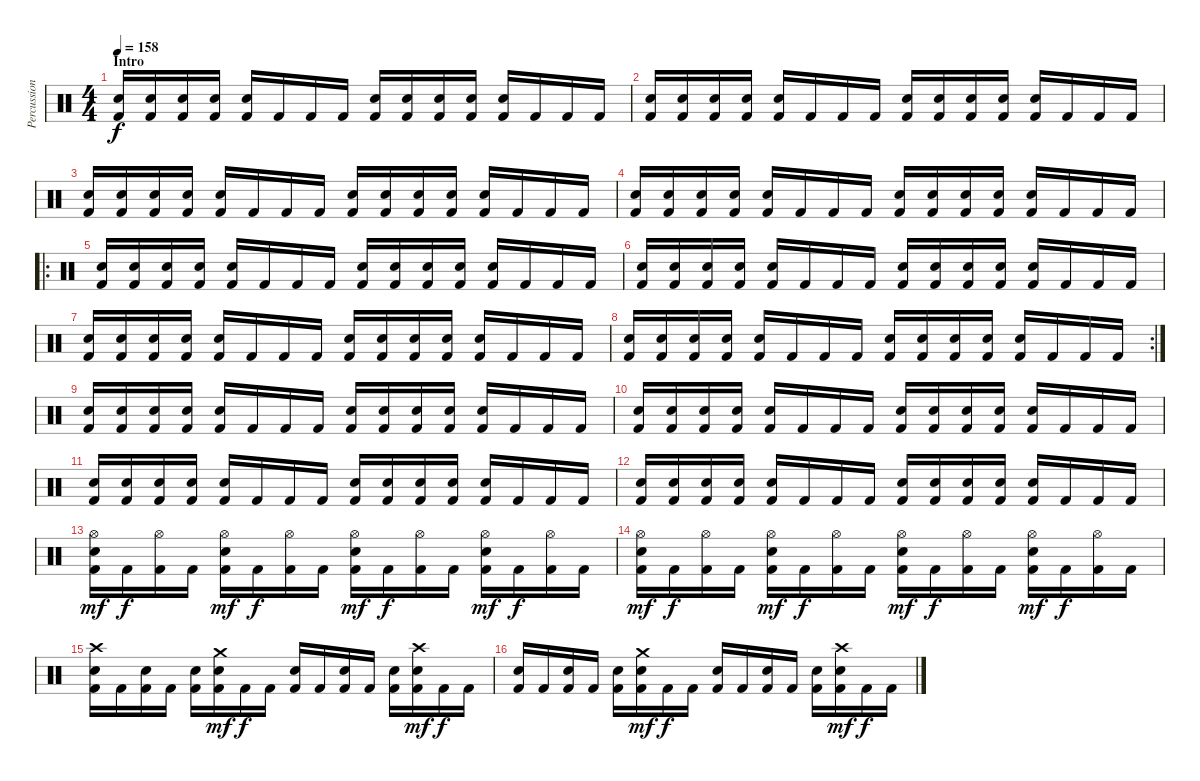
\track ("Percussion" "Percussion") {instrument percussion}
\staff {score}
\articulation defaults
\ts (4 4)
\section ("" "Intro")
\tempo 158
\clef neutral
\ks c
("Snare (hit) 2" "Kick (hit) 2").16{dy f} ("Snare (hit) 2" "Kick (hit) 2").16 ("Snare (hit) 2" "Kick (hit) 2").16 ("Snare (hit) 2" "Kick (hit) 2").16 ("Snare (hit) 2" "Kick (hit) 2").16 "Kick (hit) 2".16 "Kick (hit) 2".16 "Kick (hit) 2".16 ("Snare (hit) 2" "Kick (hit) 2").16 ("Snare (hit) 2" "Kick (hit) 2").16 ("Snare (hit) 2" "Kick (hit) 2").16 ("Snare (hit) 2" "Kick (hit) 2").16 ("Snare (hit) 2" "Kick (hit) 2").16 "Kick (hit) 2".16 "Kick (hit) 2".16 "Kick (hit) 2".16 |
("Snare (hit) 2" "Kick (hit) 2").16 ("Snare (hit) 2" "Kick (hit) 2").16 ("Snare (hit) 2" "Kick (hit) 2").16 ("Snare (hit) 2" "Kick (hit) 2").16 ("Snare (hit) 2" "Kick (hit) 2").16 "Kick (hit) 2".16 "Kick (hit) 2".16 "Kick (hit) 2".16 ("Snare (hit) 2" "Kick (hit) 2").16 ("Snare (hit) 2" "Kick (hit) 2").16 ("Snare (hit) 2" "Kick (hit) 2").16 ("Snare (hit) 2" "Kick (hit) 2").16 ("Snare (hit) 2" "Kick (hit) 2").16 "Kick (hit) 2".16 "Kick (hit) 2".16 "Kick (hit) 2".16 |
("Snare (hit) 2" "Kick (hit) 2").16 ("Snare (hit) 2" "Kick (hit) 2").16 ("Snare (hit) 2" "Kick (hit) 2").16 ("Snare (hit) 2" "Kick (hit) 2").16 ("Snare (hit) 2" "Kick (hit) 2").16 "Kick (hit) 2".16 "Kick (hit) 2".16 "Kick (hit) 2".16 ("Snare (hit) 2" "Kick (hit) 2").16 ("Snare (hit) 2" "Kick (hit) 2").16 ("Snare (hit) 2" "Kick (hit) 2").16 ("Snare (hit) 2" "Kick (hit) 2").16 ("Snare (hit) 2" "Kick (hit) 2").16 "Kick (hit) 2".16 "Kick (hit) 2".16 "Kick (hit) 2".16 |
("Snare (hit) 2" "Kick (hit) 2").16 ("Snare (hit) 2" "Kick (hit) 2").16 ("Snare (hit) 2" "Kick (hit) 2").16 ("Snare (hit) 2" "Kick (hit) 2").16 ("Snare (hit) 2" "Kick (hit) 2").16 "Kick (hit) 2".16 "Kick (hit) 2".16 "Kick (hit) 2".16 ("Snare (hit) 2" "Kick (hit) 2").16 ("Snare (hit) 2" "Kick (hit) 2").16 ("Snare (hit) 2" "Kick (hit) 2").16 ("Snare (hit) 2" "Kick (hit) 2").16 ("Snare (hit) 2" "Kick (hit) 2").16 "Kick (hit) 2".16 "Kick (hit) 2".16 "Kick (hit) 2".16 |
\ro
("Snare (hit) 2" "Kick (hit) 2").16 ("Snare (hit) 2" "Kick (hit) 2").16 ("Snare (hit) 2" "Kick (hit) 2").16 ("Snare (hit) 2" "Kick (hit) 2").16 ("Snare (hit) 2" "Kick (hit) 2").16 "Kick (hit) 2".16 "Kick (hit) 2".16 "Kick (hit) 2".16 ("Snare (hit) 2" "Kick (hit) 2").16 ("Snare (hit) 2" "Kick (hit) 2").16 ("Snare (hit) 2" "Kick (hit) 2").16 ("Snare (hit) 2" "Kick (hit) 2").16 ("Snare (hit) 2" "Kick (hit) 2").16 "Kick (hit) 2".16 "Kick (hit) 2".16 "Kick (hit) 2".16 |
("Snare (hit) 2" "Kick (hit) 2").16 ("Snare (hit) 2" "Kick (hit) 2").16 ("Snare (hit) 2" "Kick (hit) 2").16 ("Snare (hit) 2" "Kick (hit) 2").16 ("Snare (hit) 2" "Kick (hit) 2").16 "Kick (hit) 2".16 "Kick (hit) 2".16 "Kick (hit) 2".16 ("Snare (hit) 2" "Kick (hit) 2").16 ("Snare (hit) 2" "Kick (hit) 2").16 ("Snare (hit) 2" "Kick (hit) 2").16 ("Snare (hit) 2" "Kick (hit) 2").16 ("Snare (hit) 2" "Kick (hit) 2").16 "Kick (hit) 2".16 "Kick (hit) 2".16 "Kick (hit) 2".16 |
("Snare (hit) 2" "Kick (hit) 2").16 ("Snare (hit) 2" "Kick (hit) 2").16 ("Snare (hit) 2" "Kick (hit) 2").16 ("Snare (hit) 2" "Kick (hit) 2").16 ("Snare (hit) 2" "Kick (hit) 2").16 "Kick (hit) 2".16 "Kick (hit) 2".16 "Kick (hit) 2".16 ("Snare (hit) 2" "Kick (hit) 2").16 ("Snare (hit) 2" "Kick (hit) 2").16 ("Snare (hit) 2" "Kick (hit) 2").16 ("Snare (hit) 2" "Kick (hit) 2").16 ("Snare (hit) 2" "Kick (hit) 2").16 "Kick (hit) 2".16 "Kick (hit) 2".16 "Kick (hit) 2".16 |
\rc 2
("Snare (hit) 2" "Kick (hit) 2").16 ("Snare (hit) 2" "Kick (hit) 2").16 ("Snare (hit) 2" "Kick (hit) 2").16 ("Snare (hit) 2" "Kick (hit) 2").16 ("Snare (hit) 2" "Kick (hit) 2").16 "Kick (hit) 2".16 "Kick (hit) 2".16 "Kick (hit) 2".16 ("Snare (hit) 2" "Kick (hit) 2").16 ("Snare (hit) 2" "Kick (hit) 2").16 ("Snare (hit) 2" "Kick (hit) 2").16 ("Snare (hit) 2" "Kick (hit) 2").16 ("Snare (hit) 2" "Kick (hit) 2").16 "Kick (hit) 2".16 "Kick (hit) 2".16 "Kick (hit) 2".16 |
("Snare (hit) 2" "Kick (hit) 2").16 ("Snare (hit) 2" "Kick (hit) 2").16 ("Snare (hit) 2" "Kick (hit) 2").16 ("Snare (hit) 2" "Kick (hit) 2").16 ("Snare (hit) 2" "Kick (hit) 2").16 "Kick (hit) 2".16 "Kick (hit) 2".16 "Kick (hit) 2".16 ("Snare (hit) 2" "Kick (hit) 2").16 ("Snare (hit) 2" "Kick (hit) 2").16 ("Snare (hit) 2" "Kick (hit) 2").16 ("Snare (hit) 2" "Kick (hit) 2").16 ("Snare (hit) 2" "Kick (hit) 2").16 "Kick (hit) 2".16 "Kick (hit) 2".16 "Kick (hit) 2".16 |
("Snare (hit) 2" "Kick (hit) 2").16 ("Snare (hit) 2" "Kick (hit) 2").16 ("Snare (hit) 2" "Kick (hit) 2").16 ("Snare (hit) 2" "Kick (hit) 2").16 ("Snare (hit) 2" "Kick (hit) 2").16 "Kick (hit) 2".16 "Kick (hit) 2".16 "Kick (hit) 2".16 ("Snare (hit) 2" "Kick (hit) 2").16 ("Snare (hit) 2" "Kick (hit) 2").16 ("Snare (hit) 2" "Kick (hit) 2").16 ("Snare (hit) 2" "Kick (hit) 2").16 ("Snare (hit) 2" "Kick (hit) 2").16 "Kick (hit) 2".16 "Kick (hit) 2".16 "Kick (hit) 2".16 |
("Snare (hit) 2" "Kick (hit) 2").16 ("Snare (hit) 2" "Kick (hit) 2").16 ("Snare (hit) 2" "Kick (hit) 2").16 ("Snare (hit) 2" "Kick (hit) 2").16 ("Snare (hit) 2" "Kick (hit) 2").16 "Kick (hit) 2".16 "Kick (hit) 2".16 "Kick (hit) 2".16 ("Snare (hit) 2" "Kick (hit) 2").16 ("Snare (hit) 2" "Kick (hit) 2").16 ("Snare (hit) 2" "Kick (hit) 2").16 ("Snare (hit) 2" "Kick (hit) 2").16 ("Snare (hit) 2" "Kick (hit) 2").16 "Kick (hit) 2".16 "Kick (hit) 2".16 "Kick (hit) 2".16 |
("Snare (hit) 2" "Kick (hit) 2").16 ("Snare (hit) 2" "Kick (hit) 2").16 ("Snare (hit) 2" "Kick (hit) 2").16 ("Snare (hit) 2" "Kick (hit) 2").16 ("Snare (hit) 2" "Kick (hit) 2").16 "Kick (hit) 2".16 "Kick (hit) 2".16 "Kick (hit) 2".16 ("Snare (hit) 2" "Kick (hit) 2").16 ("Snare (hit) 2" "Kick (hit) 2").16 ("Snare (hit) 2" "Kick (hit) 2").16 ("Snare (hit) 2" "Kick (hit) 2").16 ("Snare (hit) 2" "Kick (hit) 2").16 "Kick (hit) 2".16 "Kick (hit) 2".16 "Kick (hit) 2".16 |
("Hi-Hat (open)" "Snare (hit) 2" "Kick (hit) 2").16{dy mf} "Kick (hit) 2".16{dy f} ("Hi-Hat (open)" "Kick (hit) 2").16 "Kick (hit) 2".16 ("Hi-Hat (open)" "Snare (hit) 2" "Kick (hit) 2").16{dy mf} "Kick (hit) 2".16{dy f} ("Hi-Hat (open)" "Kick (hit) 2").16 "Kick (hit) 2".16 ("Hi-Hat (open)" "Snare (hit) 2" "Kick (hit) 2").16{dy mf} "Kick (hit) 2".16{dy f} ("Hi-Hat (open)" "Kick (hit) 2").16 "Kick (hit) 2".16 ("Hi-Hat (open)" "Snare (hit) 2" "Kick (hit) 2").16{dy mf} "Kick (hit) 2".16{dy f} ("Hi-Hat (open)" "Kick (hit) 2").16 "Kick (hit) 2".16 |
("Hi-Hat (open)" "Snare (hit) 2" "Kick (hit) 2").16{dy mf} "Kick (hit) 2".16{dy f} ("Hi-Hat (open)" "Kick (hit) 2").16 "Kick (hit) 2".16 ("Hi-Hat (open)" "Snare (hit) 2" "Kick (hit) 2").16{dy mf} "Kick (hit) 2".16{dy f} ("Hi-Hat (open)" "Kick (hit) 2").16 "Kick (hit) 2".16 ("Hi-Hat (open)" "Snare (hit) 2" "Kick (hit) 2").16{dy mf} "Kick (hit) 2".16{dy f} ("Hi-Hat (open)" "Kick (hit) 2").16 "Kick (hit) 2".16 ("Hi-Hat (open)" "Snare (hit) 2" "Kick (hit) 2").16{dy mf} "Kick (hit) 2".16{dy f} ("Hi-Hat (open)" "Kick (hit) 2").16 "Kick (hit) 2".16 |
("Crash high (hit)" "Snare (hit) 2" "Kick (hit) 2").16 "Kick (hit) 2".16 ("Snare (hit) 2" "Kick (hit) 2").16 "Kick (hit) 2".16 ("Snare (hit) 2" "Kick (hit) 2").16 ("Crash medium (hit)" "Snare (hit) 2" "Kick (hit) 2").16{dy mf} "Kick (hit) 2".16{dy f} "Kick (hit) 2".16 ("Snare (hit) 2" "Kick (hit) 2").16 "Kick (hit) 2".16 ("Snare (hit) 2" "Kick (hit) 2").16 "Kick (hit) 2".16 ("Snare (hit) 2" "Kick (hit) 2").16 ("Crash high (hit)" "Snare (hit) 2" "Kick (hit) 2").16{dy mf} "Kick (hit) 2".16{dy f} "Kick (hit) 2".16 |
("Snare (hit) 2" "Kick (hit) 2").16 "Kick (hit) 2".16 ("Snare (hit) 2" "Kick (hit) 2").16 "Kick (hit) 2".16 ("Snare (hit) 2" "Kick (hit) 2").16 ("Crash medium (hit)" "Snare (hit) 2" "Kick (hit) 2").16{dy mf} "Kick (hit) 2".16{dy f} "Kick (hit) 2".16 ("Snare (hit) 2" "Kick (hit) 2").16 "Kick (hit) 2".16 ("Snare (hit) 2" "Kick (hit) 2").16 "Kick (hit) 2".16 ("Snare (hit) 2" "Kick (hit) 2").16 ("Crash high (hit)" "Snare (hit) 2" "Kick (hit) 2").16{dy mf} "Kick (hit) 2".16{dy f} "Kick (hit) 2".16
